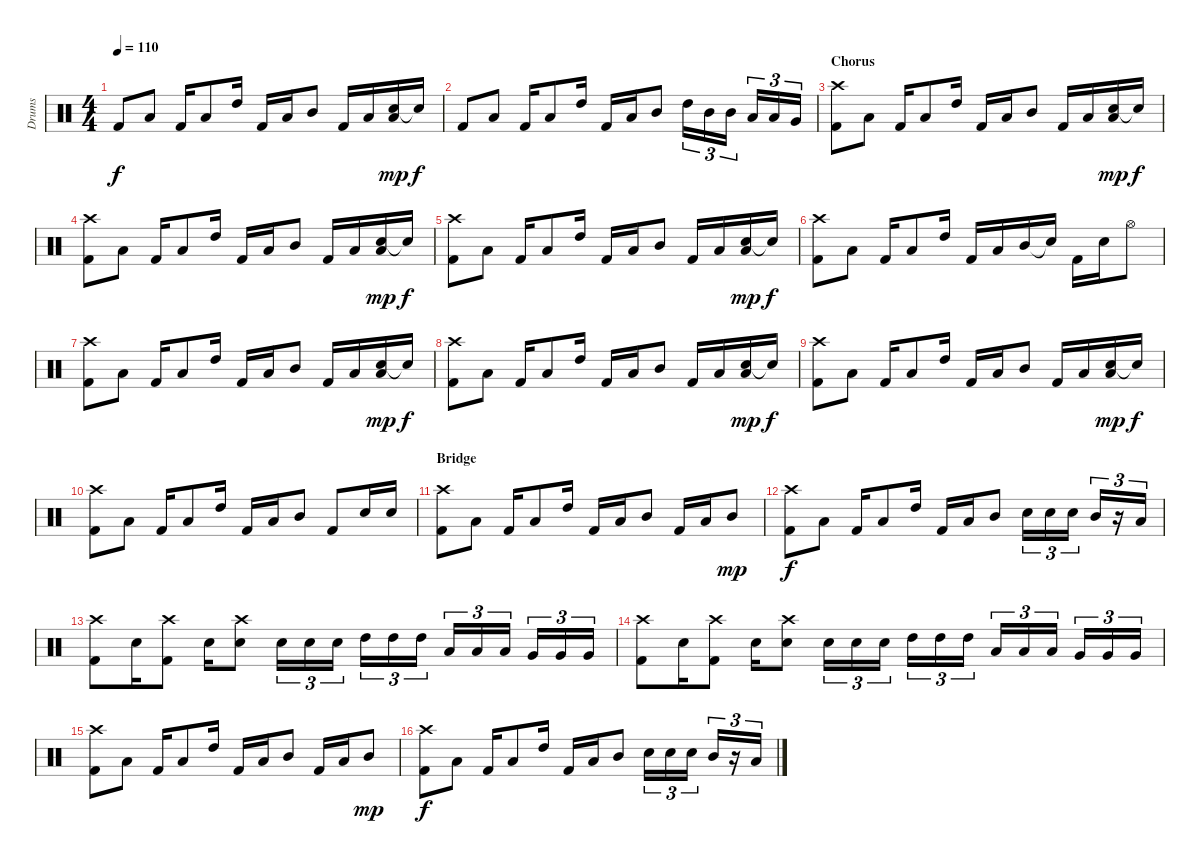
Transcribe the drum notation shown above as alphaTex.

\track ("Drums" "Drums") {instrument percussion}
\staff {score}
\articulation defaults
\ts (4 4)
\tempo 110
\clef neutral
\ks c "Kick (hit) 2".8{dy f} "Low Tom (hit)".8 "Kick (hit) 2".16 "Low Tom (hit)".8 "High Tom (hit)".16 "Kick (hit) 2".16 "Low Tom (hit)".16 "Mid Tom (hit)".8 "Kick (hit) 2".16 "Low Tom (hit)".16
("Snare (hit) 2" "Low Tom (hit)").16{dy mp} "Snare (hit)"{t}.16{dy f} |
"Kick (hit) 2".8 "Low Tom (hit)".8 "Kick (hit) 2".16 "Low Tom (hit)".8 "High Tom (hit)".16 "Kick (hit) 2".16 "Low Tom (hit)".16 "Mid Tom (hit)".8 "High Tom (hit)".16{tu (3 2)} "Mid Tom (hit)".16{tu (3 2)} "Mid Tom (hit)".16{tu (3 2) beam splitsecondary} "Low Tom (hit)".16{tu (3 2)} "Low Tom (hit)".16{tu (3 2)} "Very Low Tom (hit)".16{tu (3 2)} |
\section ("" "Chorus")
("Crash high (hit)" "Kick (hit) 2").8 "Low Tom (hit)".8 "Kick (hit) 2".16 "Low Tom (hit)".8 "High Tom (hit)".16 "Kick (hit) 2".16 "Low Tom (hit)".16 "Mid Tom (hit)".8 "Kick (hit) 2".16 "Low Tom (hit)".16 ("Snare (hit) 2" "Low Tom (hit)").16{dy mp} "Snare (hit)"{t}.16{dy f} |
("Crash high (hit)" "Kick (hit) 2").8 "Low Tom (hit)".8 "Kick (hit) 2".16 "Low Tom (hit)".8 "High Tom (hit)".16 "Kick (hit) 2".16 "Low Tom (hit)".16 "Mid Tom (hit)".8 "Kick (hit) 2".16 "Low Tom (hit)".16 ("Snare (hit) 2" "Low Tom (hit)").16{dy mp} "Snare (hit)"{t}.16{dy f} |
("Crash high (hit)" "Kick (hit) 2").8 "Low Tom (hit)".8 "Kick (hit) 2".16 "Low Tom (hit)".8 "High Tom (hit)".16 "Kick (hit) 2".16 "Low Tom (hit)".16 "Mid Tom (hit)".8 "Kick (hit) 2".16 "Low Tom (hit)".16 ("Snare (hit) 2" "Low Tom (hit)").16{dy mp} "Snare (hit)"{t}.16{dy f} |
("Crash high (hit)" "Kick (hit) 2").8 "Low Tom (hit)".8 "Kick (hit) 2".16 "Low Tom (hit)".8 "High Tom (hit)".16 "Kick (hit) 2".16 "Low Tom (hit)".16 "Mid Tom (hit)".16 "Snare (hit)"{t}.16 "Kick (hit) 2".16 "Snare (hit) 2".16 "Hi-Hat (open)".8 |
("Crash high (hit)" "Kick (hit) 2").8 "Low Tom (hit)".8 "Kick (hit) 2".16 "Low Tom (hit)".8 "High Tom (hit)".16 "Kick (hit) 2".16 "Low Tom (hit)".16 "Mid Tom (hit)".8 "Kick (hit) 2".16 "Low Tom (hit)".16 ("Snare (hit) 2" "Low Tom (hit)").16{dy mp} "Snare (hit)"{t}.16{dy f} |
("Crash high (hit)" "Kick (hit) 2").8 "Low Tom (hit)".8 "Kick (hit) 2".16 "Low Tom (hit)".8 "High Tom (hit)".16 "Kick (hit) 2".16 "Low Tom (hit)".16 "Mid Tom (hit)".8 "Kick (hit) 2".16 "Low Tom (hit)".16 ("Snare (hit) 2" "Low Tom (hit)").16{dy mp} "Snare (hit)"{t}.16{dy f} |
("Crash high (hit)" "Kick (hit) 2").8 "Low Tom (hit)".8 "Kick (hit) 2".16 "Low Tom (hit)".8 "High Tom (hit)".16 "Kick (hit) 2".16 "Low Tom (hit)".16 "Mid Tom (hit)".8 "Kick (hit) 2".16 "Low Tom (hit)".16 ("Snare (hit) 2" "Low Tom (hit)").16{dy mp} "Snare (hit)"{t}.16{dy f} |
("Crash high (hit)" "Kick (hit) 2").8 "Low Tom (hit)".8 "Kick (hit) 2".16 "Low Tom (hit)".8 "High Tom (hit)".16 "Kick (hit) 2".16 "Low Tom (hit)".16 "Mid Tom (hit)".8 "Kick (hit) 2".8 "Snare (hit) 2".16 "Snare (hit) 2".16 |
\section ("" "Bridge")
("Crash high (hit)" "Kick (hit) 2").8 "Low Tom (hit)".8 "Kick (hit) 2".16 "Low Tom (hit)".8 "High Tom (hit)".16 "Kick (hit) 2".16 "Low Tom (hit)".16 "Mid Tom (hit)".8 "Kick (hit) 2".16 "Low Tom (hit)".16 "Mid Tom (hit)".8{dy mp} |
("Crash high (hit)" "Kick (hit) 2").8{dy f} "Low Tom (hit)".8 "Kick (hit) 2".16 "Low Tom (hit)".8 "High Tom (hit)".16 "Kick (hit) 2".16 "Low Tom (hit)".16 "Mid Tom (hit)".8 "Snare (hit) 2".16{tu (3 2)} "Snare (hit) 2".16{tu (3 2)} "Snare (hit) 2".16{tu (3 2) beam splitsecondary} "Mid Tom (hit)".16{tu (3 2)} r.16{tu (3 2)} "Low Tom (hit)".16{tu (3 2)} |
("Crash high (hit)" "Kick (hit) 2").8 "Snare (hit) 2".16 ("Crash high (hit)" "Kick (hit) 2").8 "Snare (hit) 2".16 ("Crash high (hit)" "Snare (hit) 2").8 "Snare (hit) 2".16{tu (3 2)} "Snare (hit) 2".16{tu (3 2)} "Snare (hit) 2".16{tu (3 2) beam splitsecondary} "High Tom (hit)".16{tu (3 2)} "High Tom (hit)".16{tu (3 2)} "High Tom (hit)".16{tu (3 2)} "Low Tom (hit)".16{tu (3 2)} "Low Tom (hit)".16{tu (3 2)} "Low Tom (hit)".16{tu (3 2) beam splitsecondary} "Very Low Tom (hit)".16{tu (3 2)} "Very Low Tom (hit)".16{tu (3 2)} "Very Low Tom (hit)".16{tu (3 2)} |
("Crash high (hit)" "Kick (hit) 2").8 "Snare (hit) 2".16 ("Crash high (hit)" "Kick (hit) 2").8 "Snare (hit) 2".16 ("Crash high (hit)" "Snare (hit) 2").8 "Snare (hit) 2".16{tu (3 2)} "Snare (hit) 2".16{tu (3 2)} "Snare (hit) 2".16{tu (3 2) beam splitsecondary} "High Tom (hit)".16{tu (3 2)} "High Tom (hit)".16{tu (3 2)} "High Tom (hit)".16{tu (3 2)} "Low Tom (hit)".16{tu (3 2)} "Low Tom (hit)".16{tu (3 2)} "Low Tom (hit)".16{tu (3 2) beam splitsecondary} "Very Low Tom (hit)".16{tu (3 2)} "Very Low Tom (hit)".16{tu (3 2)} "Very Low Tom (hit)".16{tu (3 2)} |
("Crash high (hit)" "Kick (hit) 2").8 "Low Tom (hit)".8 "Kick (hit) 2".16 "Low Tom (hit)".8 "High Tom (hit)".16 "Kick (hit) 2".16 "Low Tom (hit)".16 "Mid Tom (hit)".8 "Kick (hit) 2".16 "Low Tom (hit)".16 "Mid Tom (hit)".8{dy mp} |
("Crash high (hit)" "Kick (hit) 2").8{dy f} "Low Tom (hit)".8 "Kick (hit) 2".16 "Low Tom (hit)".8 "High Tom (hit)".16 "Kick (hit) 2".16 "Low Tom (hit)".16 "Mid Tom (hit)".8 "Snare (hit) 2".16{tu (3 2)} "Snare (hit) 2".16{tu (3 2)} "Snare (hit) 2".16{tu (3 2) beam splitsecondary} "Mid Tom (hit)".16{tu (3 2)} r.16{tu (3 2)} "Low Tom (hit)".16{tu (3 2)}
